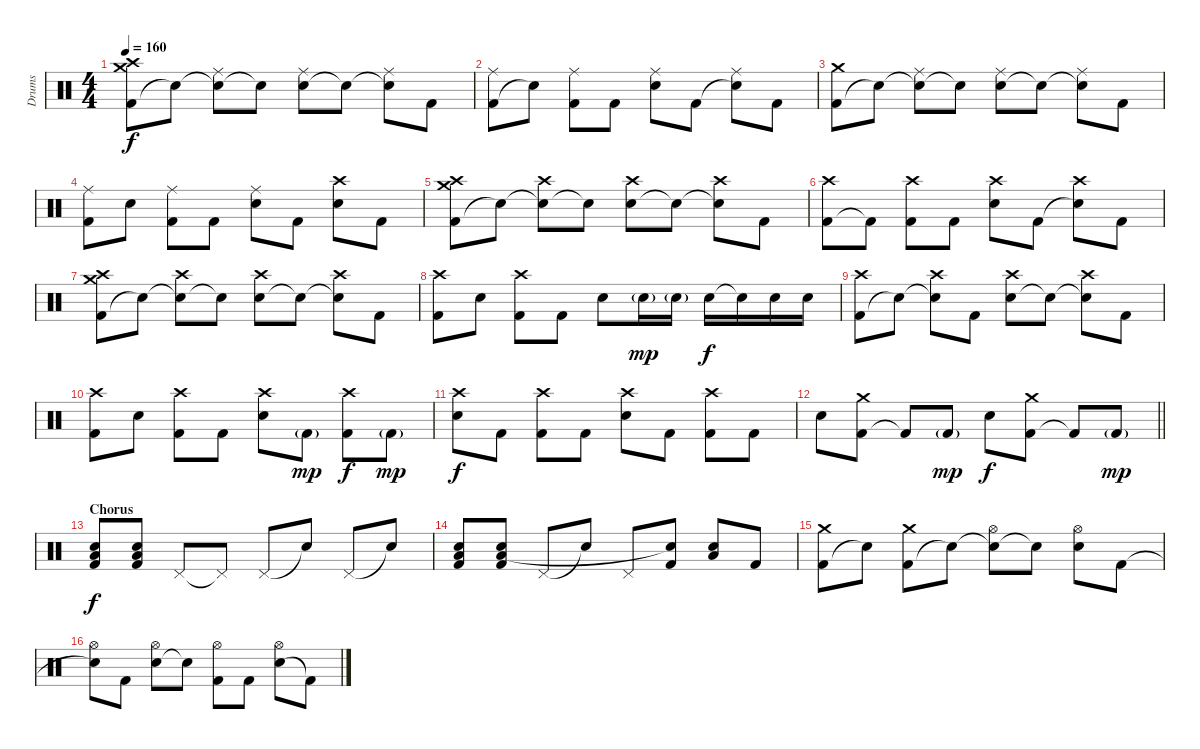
\track ("Drums" "Drums") {instrument percussion}
\staff {score}
\articulation defaults
\ts (4 4)
\tempo 160
\clef neutral
\ks c
("Kick (hit) 2" "Crash medium (hit)" "Crash high (hit)").8{dy f} "Snare (hit)"{t}.8 ("Snare (hit)"{t} "Ride (middle)").8 "Snare (hit)"{t}.8 ("Electric Snare (hit)" "Ride (middle)").8 "Snare (hit)"{t}.8 ("Snare (hit)"{t} "Ride (middle)").8 "Kick (hit) 2".8 |
("Kick (hit) 2" "Ride (middle)").8 "Snare (hit)"{t}.8 ("Kick (hit) 2" "Ride (middle)").8 "Kick (hit) 2".8 ("Electric Snare (hit)" "Ride (middle)").8 "Kick (hit) 2".8 ("Snare (hit)"{t} "Ride (middle)").8 "Kick (hit) 2".8 |
("Kick (hit) 2" "Crash medium (hit)").8 "Snare (hit)"{t}.8 ("Snare (hit)"{t} "Ride (middle)").8 "Snare (hit)"{t}.8 ("Electric Snare (hit)" "Ride (middle)").8 "Snare (hit)"{t}.8 ("Snare (hit)"{t} "Ride (middle)").8 "Kick (hit) 2".8 |
("Kick (hit) 2" "Ride (middle)").8 "Electric Snare (hit)".8 ("Kick (hit) 2" "Ride (middle)").8 "Kick (hit) 2".8 ("Electric Snare (hit)" "Ride (middle)").8 "Kick (hit) 2".8 ("Electric Snare (hit)" "Crash high (hit)").8 "Kick (hit) 2".8 |
("Kick (hit) 2" "Crash medium (hit)" "Crash high (hit)").8 "Snare (hit)"{t}.8 ("Snare (hit)"{t} "Crash high (hit)").8 "Snare (hit)"{t}.8 ("Electric Snare (hit)" "Crash high (hit)").8 "Snare (hit)"{t}.8 ("Snare (hit)"{t} "Crash high (hit)").8 "Kick (hit) 2".8 |
("Kick (hit) 2" "Crash high (hit)").8 "Kick (hit) 2"{t}.8 ("Kick (hit) 2" "Crash high (hit)").8 "Kick (hit) 2".8 ("Electric Snare (hit)" "Crash high (hit)").8 "Kick (hit) 2".8 ("Snare (hit)"{t} "Crash high (hit)").8 "Kick (hit) 2".8 |
("Kick (hit) 2" "Crash medium (hit)" "Crash high (hit)").8 "Snare (hit)"{t}.8 ("Snare (hit)"{t} "Crash high (hit)").8 "Snare (hit)"{t}.8 ("Electric Snare (hit)" "Crash high (hit)").8 "Snare (hit)"{t}.8 ("Snare (hit)"{t} "Crash high (hit)").8 "Kick (hit) 2".8 |
("Kick (hit) 2" "Crash high (hit)").8 "Electric Snare (hit)".8 ("Kick (hit) 2" "Crash high (hit)").8 "Kick (hit) 2".8 "Electric Snare (hit)".8 "Electric Snare (hit)"{g}.16{dy mp} "Electric Snare (hit)"{g}.16 "Electric Snare (hit)".16{dy f} "Snare (hit)"{t}.16 "Electric Snare (hit)".16 "Electric Snare (hit)".16 |
("Kick (hit) 2" "Crash high (hit)").8 "Snare (hit)"{t}.8 ("Snare (hit)"{t} "Crash high (hit)").8 "Kick (hit) 2".8 ("Electric Snare (hit)" "Crash high (hit)").8 "Snare (hit)"{t}.8 ("Snare (hit)"{t} "Crash high (hit)").8 "Kick (hit) 2".8 |
("Kick (hit) 2" "Crash high (hit)").8 "Electric Snare (hit)".8 ("Kick (hit) 2" "Crash high (hit)").8 "Kick (hit) 2".8 ("Electric Snare (hit)" "Crash high (hit)").8 "Kick (hit) 2"{g}.8{dy mp} ("Kick (hit) 2" "Crash high (hit)").8{dy f} "Kick (hit) 2"{g}.8{dy mp} |
("Electric Snare (hit)" "Crash high (hit)").8{dy f} "Kick (hit) 2".8 ("Kick (hit) 2" "Crash high (hit)").8 "Kick (hit) 2".8 ("Electric Snare (hit)" "Crash high (hit)").8 "Kick (hit) 2".8 ("Kick (hit) 2" "Crash high (hit)").8 "Kick (hit) 2".8 |
\barLineRight lightlight "Electric Snare (hit)".8
("Kick (hit) 2" "Crash medium (hit)").8 "Kick (hit) 2"{t}.8 "Kick (hit) 2"{g}.8{dy mp} "Electric Snare (hit)".8{dy f} ("Kick (hit) 2" "Crash medium (hit)").8 "Kick (hit) 2"{t}.8 "Kick (hit) 2"{g}.8{dy mp} |
\section ("" "Chorus")
("Electric Snare (hit)" "Low Floor Tom (hit)" "Kick (hit) 2").8{dy f} ("Electric Snare (hit)" "Low Floor Tom (hit)" "Kick (hit) 2").8 "Pedal Hi-Hat (hit)".8 "Pedal Hi-Hat (hit)"{t}.8 "Pedal Hi-Hat (hit)".8 "Snare (hit)"{t}.8 "Pedal Hi-Hat (hit)".8 "Snare (hit)"{t}.8 |
("Electric Snare (hit)" "Low Floor Tom (hit)" "Kick (hit) 2").8 ("Electric Snare (hit)" "Low Floor Tom (hit)" "Kick (hit) 2").8 "Pedal Hi-Hat (hit)".8 "Snare (hit)"{t}.8 "Pedal Hi-Hat (hit)".8 ("Kick (hit) 2" "Snare (hit)"{t}).8 ("Electric Snare (hit)" "Low Floor Tom (hit)").8 "Kick (hit) 2".8 |
("Kick (hit) 2" "Crash medium (hit)").8 "Snare (hit)"{t}.8 ("Kick (hit) 2" "Crash medium (hit)").8 "Snare (hit)"{t}.8 ("Snare (hit)"{t} "Hi-Hat (open)").8 "Snare (hit)"{t}.8 ("Electric Snare (hit)" "Hi-Hat (open)").8 "Kick (hit) 2".8 |
("Snare (hit)"{t} "Hi-Hat (open)").8 "Kick (hit) 2".8 ("Electric Snare (hit)" "Hi-Hat (open)").8 "Snare (hit)"{t}.8 ("Kick (hit) 2" "Hi-Hat (open)").8 "Kick (hit) 2".8 ("Electric Snare (hit)" "Hi-Hat (open)").8 "Kick (hit) 2"{t}.8
